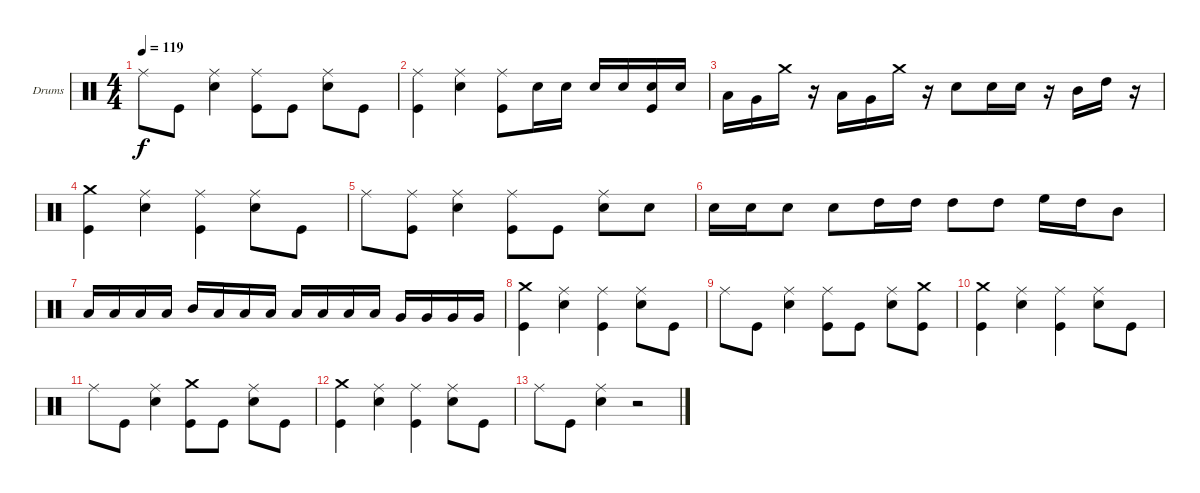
\bracketExtendMode groupsimilarinstruments
\firstSystemTrackNameOrientation horizontal
\otherSystemsTrackNameOrientation horizontal
\track ("Vinny Appice" "Drums") {instrument percussion}
\staff {score}
\articulation defaults
\ts (4 4)
\tempo 119
\clef neutral
\ks c "Ride (middle)".8{dy f} "Kick (hit)".8
("Ride (middle)" "Snare (hit) 2").4 ("Ride (middle)" "Kick (hit)").8 "Kick (hit)".8 ("Ride (middle)" "Snare (hit) 2").8 "Kick (hit)".8 |
("Ride (middle)" "Kick (hit)").4 ("Ride (middle)" "Snare (hit) 2").4 ("Ride (middle)" "Kick (hit)").8 "Snare (hit) 2".16 "Snare (hit) 2".16 "Snare (hit) 2".16 "Snare (hit) 2".16 ("Snare (hit) 2" "Kick (hit)").16 "Snare (hit) 2".16 |
"Low Tom (hit)".16 "Very Low Tom (hit)".16 "Crash medium (hit)".16 r.16 "Low Tom (hit)".16 "Very Low Tom (hit)".16 "Crash medium (hit)".16 r.16 "Snare (hit) 2".8 "Snare (hit) 2".16 "Snare (hit) 2".16 r.16 "Mid Tom (hit)".16 "High Tom (hit)".16 r.16 |
("Crash medium (hit)" "Kick (hit)").4 ("Ride (middle)" "Snare (hit) 2").4 ("Ride (middle)" "Kick (hit)").4 ("Ride (middle)" "Snare (hit) 2").8 "Kick (hit)".8 |
"Ride (middle)".8 ("Ride (middle)" "Kick (hit)").8 ("Ride (middle)" "Snare (hit) 2").4 ("Ride (middle)" "Kick (hit)").8 "Kick (hit)".8 ("Ride (middle)" "Snare (hit) 2").8 "Snare (hit) 2".8 |
"Snare (hit) 2".16 "Snare (hit) 2".16 "Snare (hit) 2".8 "Snare (hit) 2".8 "High Tom (hit)".16 "High Tom (hit)".16 "High Tom (hit)".8 "High Tom (hit)".8 "High Floor Tom (hit)".16 "High Tom (hit)".16 "Mid Tom (hit)".8 |
"Low Tom (hit)".16 "Low Tom (hit)".16 "Low Tom (hit)".16 "Low Tom (hit)".16 "Mid Tom (hit)".16 "Low Tom (hit)".16 "Low Tom (hit)".16 "Low Tom (hit)".16 "Low Tom (hit)".16 "Low Tom (hit)".16 "Low Tom (hit)".16 "Low Tom (hit)".16 "Very Low Tom (hit)".16 "Very Low Tom (hit)".16 "Very Low Tom (hit)".16 "Very Low Tom (hit)".16 |
("Crash medium (hit)" "Kick (hit)").4 ("Ride (middle)" "Snare (hit) 2").4 ("Ride (middle)" "Kick (hit)").4 ("Ride (middle)" "Snare (hit) 2").8 "Kick (hit)".8 |
"Ride (middle)".8 "Kick (hit)".8 ("Ride (middle)" "Snare (hit) 2").4 ("Ride (middle)" "Kick (hit)").8 "Kick (hit)".8 ("Ride (middle)" "Snare (hit) 2").8 ("Crash medium (hit)" "Kick (hit)").8 |
("Crash medium (hit)" "Kick (hit)").4 ("Ride (middle)" "Snare (hit) 2").4 ("Ride (middle)" "Kick (hit)").4 ("Ride (middle)" "Snare (hit) 2").8 "Kick (hit)".8 |
"Ride (middle)".8 "Kick (hit)".8 ("Ride (middle)" "Snare (hit) 2").4 ("Crash medium (hit)" "Kick (hit)").8 "Kick (hit)".8 ("Ride (middle)" "Snare (hit) 2").8 "Kick (hit)".8 |
("Crash medium (hit)" "Kick (hit)").4 ("Ride (middle)" "Snare (hit) 2").4 ("Ride (middle)" "Kick (hit)").4 ("Ride (middle)" "Snare (hit) 2").8 "Kick (hit)".8 |
"Ride (middle)".8 "Kick (hit)".8 ("Ride (middle)" "Snare (hit) 2").4 r.2
